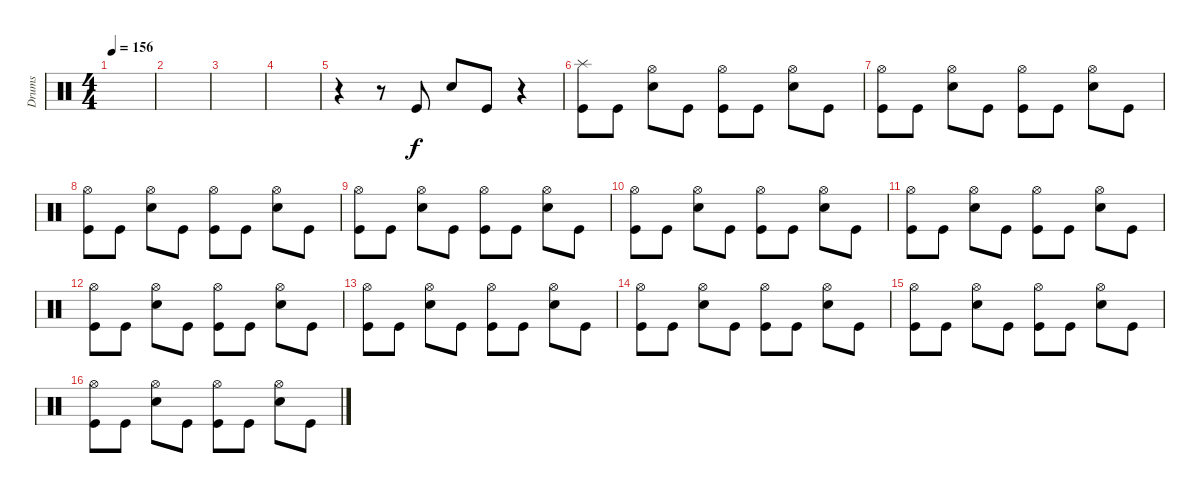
\track ("Drums" "Drums") {instrument percussion}
\staff {score}
\articulation defaults
\ts (4 4)
\tempo 156
\clef neutral
\ks c
|
|
|
|
r.4 r.8 "Kick (hit)".8 "Snare (hit) 2".8 "Kick (hit)".8 r.4 |
("Kick (hit)" "Splash (hit)").8 "Kick (hit)".8 ("Snare (hit) 2" "Hi-Hat (open)").8 "Kick (hit)".8 ("Kick (hit)" "Hi-Hat (open)").8 "Kick (hit)".8 ("Snare (hit) 2" "Hi-Hat (open)").8 "Kick (hit)".8 |
("Kick (hit)" "Hi-Hat (open)").8 "Kick (hit)".8 ("Snare (hit) 2" "Hi-Hat (open)").8 "Kick (hit)".8 ("Kick (hit)" "Hi-Hat (open)").8 "Kick (hit)".8 ("Snare (hit) 2" "Hi-Hat (open)").8 "Kick (hit)".8 |
("Kick (hit)" "Hi-Hat (open)").8 "Kick (hit)".8 ("Snare (hit) 2" "Hi-Hat (open)").8 "Kick (hit)".8 ("Kick (hit)" "Hi-Hat (open)").8 "Kick (hit)".8 ("Snare (hit) 2" "Hi-Hat (open)").8 "Kick (hit)".8 |
("Kick (hit)" "Hi-Hat (open)").8 "Kick (hit)".8 ("Snare (hit) 2" "Hi-Hat (open)").8 "Kick (hit)".8 ("Kick (hit)" "Hi-Hat (open)").8 "Kick (hit)".8 ("Snare (hit) 2" "Hi-Hat (open)").8 "Kick (hit)".8 |
("Kick (hit)" "Hi-Hat (open)").8 "Kick (hit)".8 ("Snare (hit) 2" "Hi-Hat (open)").8 "Kick (hit)".8 ("Kick (hit)" "Hi-Hat (open)").8 "Kick (hit)".8 ("Snare (hit) 2" "Hi-Hat (open)").8 "Kick (hit)".8 |
("Kick (hit)" "Hi-Hat (open)").8 "Kick (hit)".8 ("Snare (hit) 2" "Hi-Hat (open)").8 "Kick (hit)".8 ("Kick (hit)" "Hi-Hat (open)").8 "Kick (hit)".8 ("Snare (hit) 2" "Hi-Hat (open)").8 "Kick (hit)".8 |
("Kick (hit)" "Hi-Hat (open)").8 "Kick (hit)".8 ("Snare (hit) 2" "Hi-Hat (open)").8 "Kick (hit)".8 ("Kick (hit)" "Hi-Hat (open)").8 "Kick (hit)".8 ("Snare (hit) 2" "Hi-Hat (open)").8 "Kick (hit)".8 |
("Kick (hit)" "Hi-Hat (open)").8 "Kick (hit)".8 ("Snare (hit) 2" "Hi-Hat (open)").8 "Kick (hit)".8 ("Kick (hit)" "Hi-Hat (open)").8 "Kick (hit)".8 ("Snare (hit) 2" "Hi-Hat (open)").8 "Kick (hit)".8 |
("Kick (hit)" "Hi-Hat (open)").8 "Kick (hit)".8 ("Snare (hit) 2" "Hi-Hat (open)").8 "Kick (hit)".8 ("Kick (hit)" "Hi-Hat (open)").8 "Kick (hit)".8 ("Snare (hit) 2" "Hi-Hat (open)").8 "Kick (hit)".8 |
("Kick (hit)" "Hi-Hat (open)").8 "Kick (hit)".8 ("Snare (hit) 2" "Hi-Hat (open)").8 "Kick (hit)".8 ("Kick (hit)" "Hi-Hat (open)").8 "Kick (hit)".8 ("Snare (hit) 2" "Hi-Hat (open)").8 "Kick (hit)".8 |
("Kick (hit)" "Hi-Hat (open)").8 "Kick (hit)".8 ("Snare (hit) 2" "Hi-Hat (open)").8 "Kick (hit)".8 ("Kick (hit)" "Hi-Hat (open)").8 "Kick (hit)".8 ("Snare (hit) 2" "Hi-Hat (open)").8 "Kick (hit)".8
